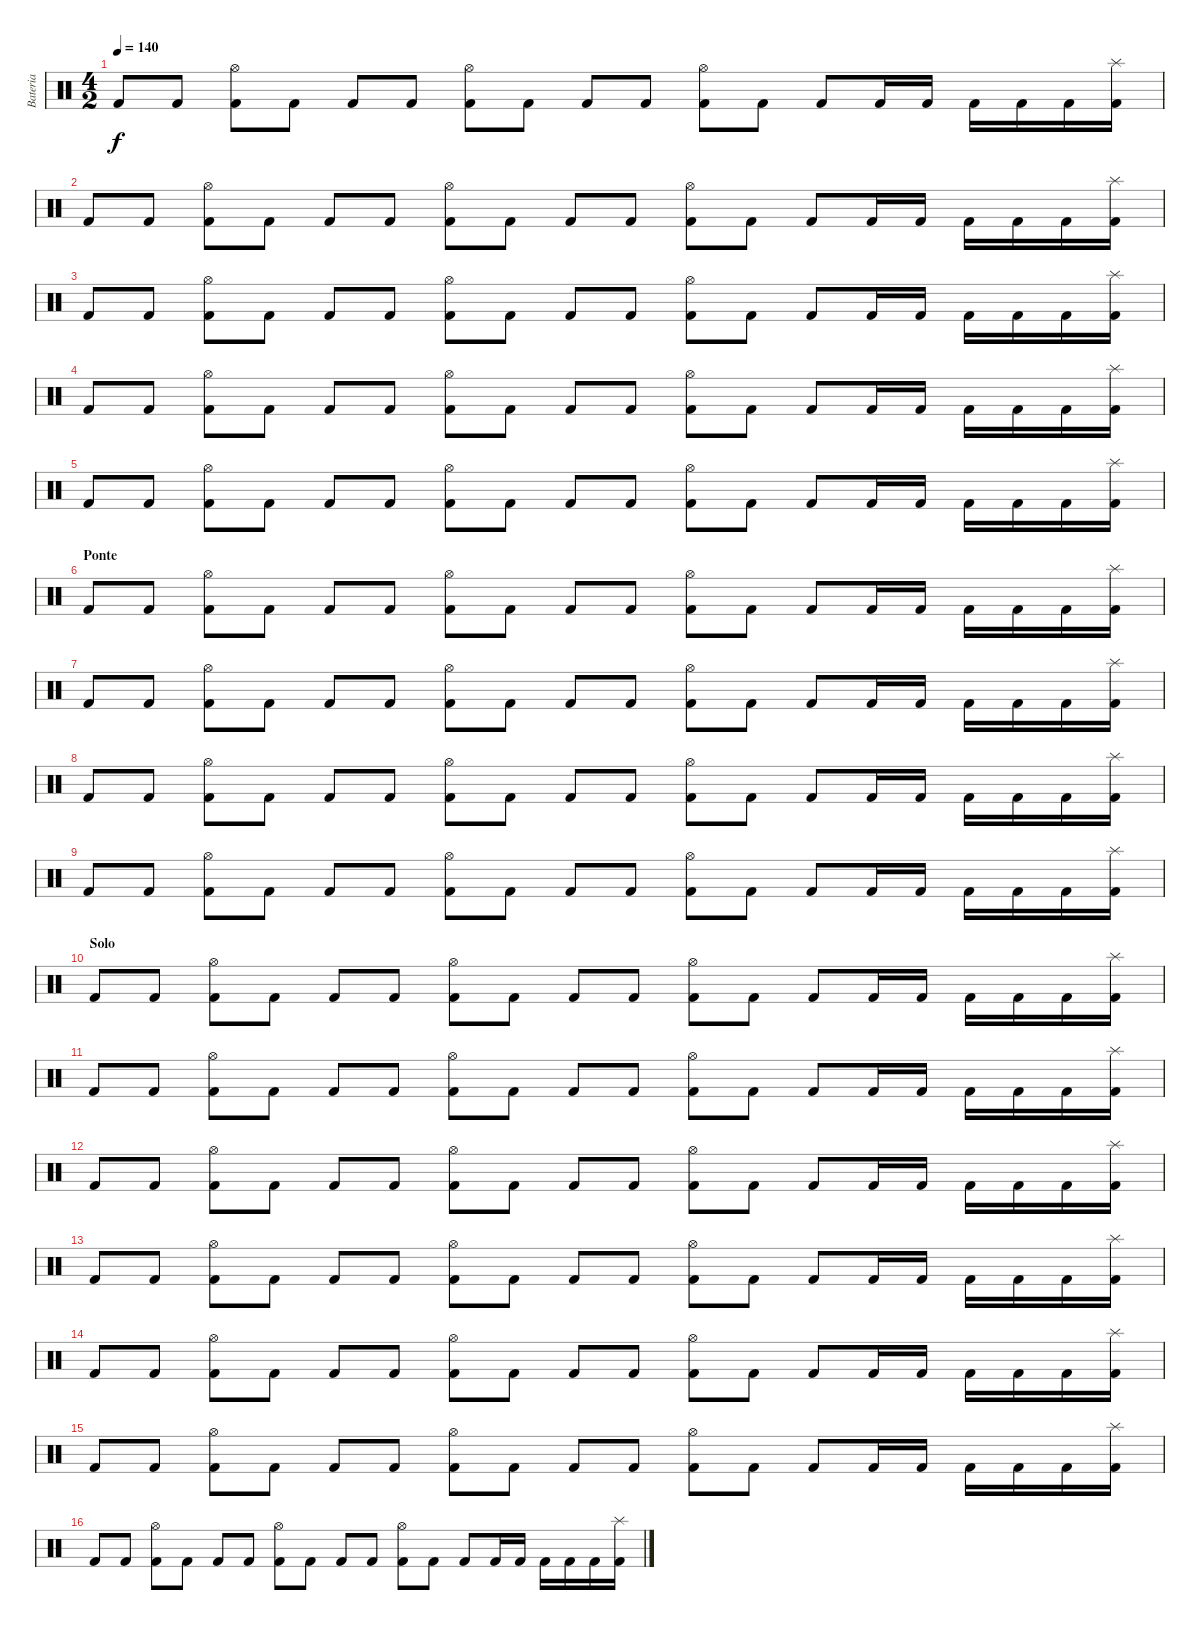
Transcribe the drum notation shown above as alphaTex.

\track ("Bateria" "Bateria") {instrument percussion}
\staff {score}
\articulation defaults
\ts (4 2)
\tempo 140
\clef neutral
\ks c "Kick (hit) 2".8{dy f} "Kick (hit) 2".8
("Kick (hit) 2" "Hi-Hat (open)").8 "Kick (hit) 2".8 "Kick (hit) 2".8 "Kick (hit) 2".8 ("Kick (hit) 2" "Hi-Hat (open)").8 "Kick (hit) 2".8 "Kick (hit) 2".8 "Kick (hit) 2".8 ("Kick (hit) 2" "Hi-Hat (open)").8 "Kick (hit) 2".8 "Kick (hit) 2".8 "Kick (hit) 2".16 "Kick (hit) 2".16 "Kick (hit) 2".16 "Kick (hit) 2".16 "Kick (hit) 2".16 ("Kick (hit) 2" "Splash (hit)").16 |
"Kick (hit) 2".8 "Kick (hit) 2".8 ("Kick (hit) 2" "Hi-Hat (open)").8 "Kick (hit) 2".8 "Kick (hit) 2".8 "Kick (hit) 2".8 ("Kick (hit) 2" "Hi-Hat (open)").8 "Kick (hit) 2".8 "Kick (hit) 2".8 "Kick (hit) 2".8 ("Kick (hit) 2" "Hi-Hat (open)").8 "Kick (hit) 2".8 "Kick (hit) 2".8 "Kick (hit) 2".16 "Kick (hit) 2".16 "Kick (hit) 2".16 "Kick (hit) 2".16 "Kick (hit) 2".16 ("Kick (hit) 2" "Splash (hit)").16 |
"Kick (hit) 2".8 "Kick (hit) 2".8 ("Kick (hit) 2" "Hi-Hat (open)").8 "Kick (hit) 2".8 "Kick (hit) 2".8 "Kick (hit) 2".8 ("Kick (hit) 2" "Hi-Hat (open)").8 "Kick (hit) 2".8 "Kick (hit) 2".8 "Kick (hit) 2".8 ("Kick (hit) 2" "Hi-Hat (open)").8 "Kick (hit) 2".8 "Kick (hit) 2".8 "Kick (hit) 2".16 "Kick (hit) 2".16 "Kick (hit) 2".16 "Kick (hit) 2".16 "Kick (hit) 2".16 ("Kick (hit) 2" "Splash (hit)").16 |
"Kick (hit) 2".8 "Kick (hit) 2".8 ("Kick (hit) 2" "Hi-Hat (open)").8 "Kick (hit) 2".8 "Kick (hit) 2".8 "Kick (hit) 2".8 ("Kick (hit) 2" "Hi-Hat (open)").8 "Kick (hit) 2".8 "Kick (hit) 2".8 "Kick (hit) 2".8 ("Kick (hit) 2" "Hi-Hat (open)").8 "Kick (hit) 2".8 "Kick (hit) 2".8 "Kick (hit) 2".16 "Kick (hit) 2".16 "Kick (hit) 2".16 "Kick (hit) 2".16 "Kick (hit) 2".16 ("Kick (hit) 2" "Splash (hit)").16 |
"Kick (hit) 2".8 "Kick (hit) 2".8 ("Kick (hit) 2" "Hi-Hat (open)").8 "Kick (hit) 2".8 "Kick (hit) 2".8 "Kick (hit) 2".8 ("Kick (hit) 2" "Hi-Hat (open)").8 "Kick (hit) 2".8 "Kick (hit) 2".8 "Kick (hit) 2".8 ("Kick (hit) 2" "Hi-Hat (open)").8 "Kick (hit) 2".8 "Kick (hit) 2".8 "Kick (hit) 2".16 "Kick (hit) 2".16 "Kick (hit) 2".16 "Kick (hit) 2".16 "Kick (hit) 2".16 ("Kick (hit) 2" "Splash (hit)").16 |
\section ("" "Ponte")
"Kick (hit) 2".8 "Kick (hit) 2".8 ("Kick (hit) 2" "Hi-Hat (open)").8 "Kick (hit) 2".8 "Kick (hit) 2".8 "Kick (hit) 2".8 ("Kick (hit) 2" "Hi-Hat (open)").8 "Kick (hit) 2".8 "Kick (hit) 2".8 "Kick (hit) 2".8 ("Kick (hit) 2" "Hi-Hat (open)").8 "Kick (hit) 2".8 "Kick (hit) 2".8 "Kick (hit) 2".16 "Kick (hit) 2".16 "Kick (hit) 2".16 "Kick (hit) 2".16 "Kick (hit) 2".16 ("Kick (hit) 2" "Splash (hit)").16 |
"Kick (hit) 2".8 "Kick (hit) 2".8 ("Kick (hit) 2" "Hi-Hat (open)").8 "Kick (hit) 2".8 "Kick (hit) 2".8 "Kick (hit) 2".8 ("Kick (hit) 2" "Hi-Hat (open)").8 "Kick (hit) 2".8 "Kick (hit) 2".8 "Kick (hit) 2".8 ("Kick (hit) 2" "Hi-Hat (open)").8 "Kick (hit) 2".8 "Kick (hit) 2".8 "Kick (hit) 2".16 "Kick (hit) 2".16 "Kick (hit) 2".16 "Kick (hit) 2".16 "Kick (hit) 2".16 ("Kick (hit) 2" "Splash (hit)").16 |
"Kick (hit) 2".8 "Kick (hit) 2".8 ("Kick (hit) 2" "Hi-Hat (open)").8 "Kick (hit) 2".8 "Kick (hit) 2".8 "Kick (hit) 2".8 ("Kick (hit) 2" "Hi-Hat (open)").8 "Kick (hit) 2".8 "Kick (hit) 2".8 "Kick (hit) 2".8 ("Kick (hit) 2" "Hi-Hat (open)").8 "Kick (hit) 2".8 "Kick (hit) 2".8 "Kick (hit) 2".16 "Kick (hit) 2".16 "Kick (hit) 2".16 "Kick (hit) 2".16 "Kick (hit) 2".16 ("Kick (hit) 2" "Splash (hit)").16 |
"Kick (hit) 2".8 "Kick (hit) 2".8 ("Kick (hit) 2" "Hi-Hat (open)").8 "Kick (hit) 2".8 "Kick (hit) 2".8 "Kick (hit) 2".8 ("Kick (hit) 2" "Hi-Hat (open)").8 "Kick (hit) 2".8 "Kick (hit) 2".8 "Kick (hit) 2".8 ("Kick (hit) 2" "Hi-Hat (open)").8 "Kick (hit) 2".8 "Kick (hit) 2".8 "Kick (hit) 2".16 "Kick (hit) 2".16 "Kick (hit) 2".16 "Kick (hit) 2".16 "Kick (hit) 2".16 ("Kick (hit) 2" "Splash (hit)").16 |
\section ("" "Solo")
"Kick (hit) 2".8 "Kick (hit) 2".8 ("Kick (hit) 2" "Hi-Hat (open)").8 "Kick (hit) 2".8 "Kick (hit) 2".8 "Kick (hit) 2".8 ("Kick (hit) 2" "Hi-Hat (open)").8 "Kick (hit) 2".8 "Kick (hit) 2".8 "Kick (hit) 2".8 ("Kick (hit) 2" "Hi-Hat (open)").8 "Kick (hit) 2".8 "Kick (hit) 2".8 "Kick (hit) 2".16 "Kick (hit) 2".16 "Kick (hit) 2".16 "Kick (hit) 2".16 "Kick (hit) 2".16 ("Kick (hit) 2" "Splash (hit)").16 |
"Kick (hit) 2".8 "Kick (hit) 2".8 ("Kick (hit) 2" "Hi-Hat (open)").8 "Kick (hit) 2".8 "Kick (hit) 2".8 "Kick (hit) 2".8 ("Kick (hit) 2" "Hi-Hat (open)").8 "Kick (hit) 2".8 "Kick (hit) 2".8 "Kick (hit) 2".8 ("Kick (hit) 2" "Hi-Hat (open)").8 "Kick (hit) 2".8 "Kick (hit) 2".8 "Kick (hit) 2".16 "Kick (hit) 2".16 "Kick (hit) 2".16 "Kick (hit) 2".16 "Kick (hit) 2".16 ("Kick (hit) 2" "Splash (hit)").16 |
"Kick (hit) 2".8 "Kick (hit) 2".8 ("Kick (hit) 2" "Hi-Hat (open)").8 "Kick (hit) 2".8 "Kick (hit) 2".8 "Kick (hit) 2".8 ("Kick (hit) 2" "Hi-Hat (open)").8 "Kick (hit) 2".8 "Kick (hit) 2".8 "Kick (hit) 2".8 ("Kick (hit) 2" "Hi-Hat (open)").8 "Kick (hit) 2".8 "Kick (hit) 2".8 "Kick (hit) 2".16 "Kick (hit) 2".16 "Kick (hit) 2".16 "Kick (hit) 2".16 "Kick (hit) 2".16 ("Kick (hit) 2" "Splash (hit)").16 |
"Kick (hit) 2".8 "Kick (hit) 2".8 ("Kick (hit) 2" "Hi-Hat (open)").8 "Kick (hit) 2".8 "Kick (hit) 2".8 "Kick (hit) 2".8 ("Kick (hit) 2" "Hi-Hat (open)").8 "Kick (hit) 2".8 "Kick (hit) 2".8 "Kick (hit) 2".8 ("Kick (hit) 2" "Hi-Hat (open)").8 "Kick (hit) 2".8 "Kick (hit) 2".8 "Kick (hit) 2".16 "Kick (hit) 2".16 "Kick (hit) 2".16 "Kick (hit) 2".16 "Kick (hit) 2".16 ("Kick (hit) 2" "Splash (hit)").16 |
"Kick (hit) 2".8 "Kick (hit) 2".8 ("Kick (hit) 2" "Hi-Hat (open)").8 "Kick (hit) 2".8 "Kick (hit) 2".8 "Kick (hit) 2".8 ("Kick (hit) 2" "Hi-Hat (open)").8 "Kick (hit) 2".8 "Kick (hit) 2".8 "Kick (hit) 2".8 ("Kick (hit) 2" "Hi-Hat (open)").8 "Kick (hit) 2".8 "Kick (hit) 2".8 "Kick (hit) 2".16 "Kick (hit) 2".16 "Kick (hit) 2".16 "Kick (hit) 2".16 "Kick (hit) 2".16 ("Kick (hit) 2" "Splash (hit)").16 |
"Kick (hit) 2".8 "Kick (hit) 2".8 ("Kick (hit) 2" "Hi-Hat (open)").8 "Kick (hit) 2".8 "Kick (hit) 2".8 "Kick (hit) 2".8 ("Kick (hit) 2" "Hi-Hat (open)").8 "Kick (hit) 2".8 "Kick (hit) 2".8 "Kick (hit) 2".8 ("Kick (hit) 2" "Hi-Hat (open)").8 "Kick (hit) 2".8 "Kick (hit) 2".8 "Kick (hit) 2".16 "Kick (hit) 2".16 "Kick (hit) 2".16 "Kick (hit) 2".16 "Kick (hit) 2".16 ("Kick (hit) 2" "Splash (hit)").16 |
"Kick (hit) 2".8 "Kick (hit) 2".8 ("Kick (hit) 2" "Hi-Hat (open)").8 "Kick (hit) 2".8 "Kick (hit) 2".8 "Kick (hit) 2".8 ("Kick (hit) 2" "Hi-Hat (open)").8 "Kick (hit) 2".8 "Kick (hit) 2".8 "Kick (hit) 2".8 ("Kick (hit) 2" "Hi-Hat (open)").8 "Kick (hit) 2".8 "Kick (hit) 2".8 "Kick (hit) 2".16 "Kick (hit) 2".16 "Kick (hit) 2".16 "Kick (hit) 2".16 "Kick (hit) 2".16 ("Kick (hit) 2" "Splash (hit)").16
